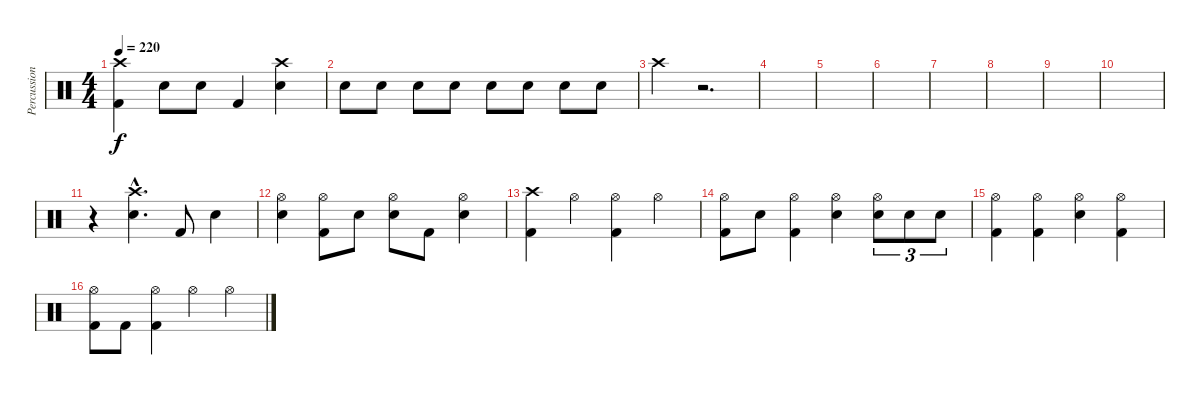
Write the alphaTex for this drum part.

\track ("Percussion" "Percussion") {instrument percussion}
\staff {score}
\articulation defaults
\ts (4 4)
\tempo 220
\clef neutral
\ks c
("Crash high (hit)" "Kick (hit) 2").4{dy f} "Snare (hit) 2".8 "Snare (hit) 2".8 "Kick (hit) 2".4 ("Crash high (hit)" "Snare (hit) 2").4 |
"Snare (hit) 2".8 "Snare (hit) 2".8 "Snare (hit) 2".8 "Snare (hit) 2".8 "Snare (hit) 2".8 "Snare (hit) 2".8 "Snare (hit) 2".8 "Snare (hit) 2".8 |
"Crash high (hit)".4 r.2{d} |
|
|
|
|
|
|
|
r.4 ("Crash high (hit)"{hac} "Snare (hit) 2"{hac}).4{d} "Kick (hit) 2".8 "Snare (hit) 2".4 |
("Hi-Hat (open)" "Snare (hit) 2").4 ("Hi-Hat (open)" "Kick (hit) 2").8 "Snare (hit) 2".8 ("Hi-Hat (open)" "Snare (hit) 2").8 "Kick (hit) 2".8 ("Hi-Hat (open)" "Snare (hit) 2").4 |
("Crash high (hit)" "Kick (hit) 2").4 "Hi-Hat (open)".4 ("Hi-Hat (open)" "Kick (hit) 2").4 "Hi-Hat (open)".4 |
("Hi-Hat (open)" "Kick (hit) 2").8 "Snare (hit) 2".8 ("Hi-Hat (open)" "Kick (hit) 2").4 ("Hi-Hat (open)" "Snare (hit) 2").4 ("Hi-Hat (open)" "Snare (hit) 2").8{tu (3 2)} "Snare (hit) 2".8{tu (3 2)} "Snare (hit) 2".8{tu (3 2)} |
("Hi-Hat (open)" "Kick (hit) 2").4 ("Hi-Hat (open)" "Kick (hit) 2").4 ("Hi-Hat (open)" "Snare (hit) 2").4 ("Hi-Hat (open)" "Kick (hit) 2").4 |
("Hi-Hat (open)" "Kick (hit) 2").8 "Kick (hit) 2".8 ("Hi-Hat (open)" "Kick (hit) 2").4 "Hi-Hat (open)".4 "Hi-Hat (open)".4
